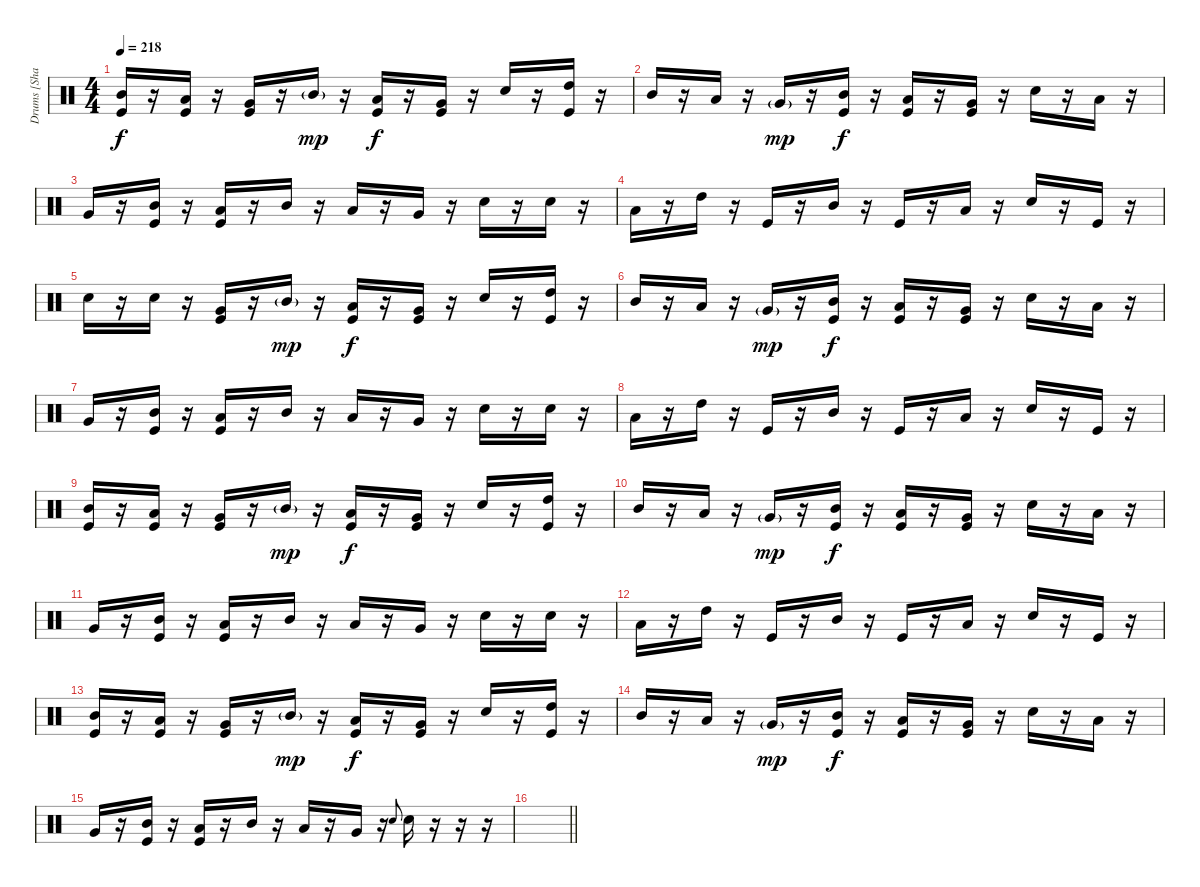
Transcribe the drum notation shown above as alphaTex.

\track ("Drums [Shannon Larkin]" "Drums [Sha") {instrument percussion}
\staff {score}
\articulation defaults
\ts (4 4)
\tempo 218
\clef neutral
\ks c
("Mid Tom (hit)" "Kick (hit)").16{dy f} r.16 ("Low Tom (hit)" "Kick (hit)").16 r.16 ("Very Low Tom (hit)" "Kick (hit)").16 r.16 "Mid Tom (hit)"{g}.16{dy mp} r.16 ("Low Tom (hit)" "Kick (hit)").16{dy f} r.16 ("Very Low Tom (hit)" "Kick (hit)").16 r.16 "Electric Snare (hit)".16 r.16 ("High Tom (hit)" "Kick (hit)").16 r.16 |
"Mid Tom (hit)".16 r.16 "Low Tom (hit)".16 r.16 "Very Low Tom (hit)"{g}.16{dy mp} r.16 ("Mid Tom (hit)" "Kick (hit)").16{dy f} r.16 ("Low Tom (hit)" "Kick (hit)").16 r.16 ("Very Low Tom (hit)" "Kick (hit)").16 r.16 "Electric Snare (hit)".16 r.16 "Low Tom (hit)".16 r.16 |
"Very Low Tom (hit)".16 r.16 ("Mid Tom (hit)" "Kick (hit)").16 r.16 ("Low Tom (hit)" "Kick (hit)").16 r.16 "Mid Tom (hit)".16 r.16 "Low Tom (hit)".16 r.16 "Very Low Tom (hit)".16 r.16 "Electric Snare (hit)".16 r.16 "Electric Snare (hit)".16 r.16 |
"Low Tom (hit)".16 r.16 "High Tom (hit)".16 r.16 "Kick (hit)".16 r.16 "Mid Tom (hit)".16 r.16 "Kick (hit)".16 r.16 "Low Tom (hit)".16 r.16 "Electric Snare (hit)".16 r.16 "Kick (hit)".16 r.16 |
"Electric Snare (hit)".16 r.16 "Electric Snare (hit)".16 r.16 ("Very Low Tom (hit)" "Kick (hit)").16 r.16 "Mid Tom (hit)"{g}.16{dy mp} r.16 ("Low Tom (hit)" "Kick (hit)").16{dy f} r.16 ("Very Low Tom (hit)" "Kick (hit)").16 r.16 "Electric Snare (hit)".16 r.16 ("High Tom (hit)" "Kick (hit)").16 r.16 |
"Mid Tom (hit)".16 r.16 "Low Tom (hit)".16 r.16 "Very Low Tom (hit)"{g}.16{dy mp} r.16 ("Mid Tom (hit)" "Kick (hit)").16{dy f} r.16 ("Low Tom (hit)" "Kick (hit)").16 r.16 ("Very Low Tom (hit)" "Kick (hit)").16 r.16 "Electric Snare (hit)".16 r.16 "Low Tom (hit)".16 r.16 |
"Very Low Tom (hit)".16 r.16 ("Mid Tom (hit)" "Kick (hit)").16 r.16 ("Low Tom (hit)" "Kick (hit)").16 r.16 "Mid Tom (hit)".16 r.16 "Low Tom (hit)".16 r.16 "Very Low Tom (hit)".16 r.16 "Electric Snare (hit)".16 r.16 "Electric Snare (hit)".16 r.16 |
"Low Tom (hit)".16 r.16 "High Tom (hit)".16 r.16 "Kick (hit)".16 r.16 "Mid Tom (hit)".16 r.16 "Kick (hit)".16 r.16 "Low Tom (hit)".16 r.16 "Electric Snare (hit)".16 r.16 "Kick (hit)".16 r.16 |
("Mid Tom (hit)" "Kick (hit)").16 r.16 ("Low Tom (hit)" "Kick (hit)").16 r.16 ("Very Low Tom (hit)" "Kick (hit)").16 r.16 "Mid Tom (hit)"{g}.16{dy mp} r.16 ("Low Tom (hit)" "Kick (hit)").16{dy f} r.16 ("Very Low Tom (hit)" "Kick (hit)").16 r.16 "Electric Snare (hit)".16 r.16 ("High Tom (hit)" "Kick (hit)").16 r.16 |
"Mid Tom (hit)".16 r.16 "Low Tom (hit)".16 r.16 "Very Low Tom (hit)"{g}.16{dy mp} r.16 ("Mid Tom (hit)" "Kick (hit)").16{dy f} r.16 ("Low Tom (hit)" "Kick (hit)").16 r.16 ("Very Low Tom (hit)" "Kick (hit)").16 r.16 "Electric Snare (hit)".16 r.16 "Low Tom (hit)".16 r.16 |
"Very Low Tom (hit)".16 r.16 ("Mid Tom (hit)" "Kick (hit)").16 r.16 ("Low Tom (hit)" "Kick (hit)").16 r.16 "Mid Tom (hit)".16 r.16 "Low Tom (hit)".16 r.16 "Very Low Tom (hit)".16 r.16 "Electric Snare (hit)".16 r.16 "Electric Snare (hit)".16 r.16 |
"Low Tom (hit)".16 r.16 "High Tom (hit)".16 r.16 "Kick (hit)".16 r.16 "Mid Tom (hit)".16 r.16 "Kick (hit)".16 r.16 "Low Tom (hit)".16 r.16 "Electric Snare (hit)".16 r.16 "Kick (hit)".16 r.16 |
("Mid Tom (hit)" "Kick (hit)").16 r.16 ("Low Tom (hit)" "Kick (hit)").16 r.16 ("Very Low Tom (hit)" "Kick (hit)").16 r.16 "Mid Tom (hit)"{g}.16{dy mp} r.16 ("Low Tom (hit)" "Kick (hit)").16{dy f} r.16 ("Very Low Tom (hit)" "Kick (hit)").16 r.16 "Electric Snare (hit)".16 r.16 ("High Tom (hit)" "Kick (hit)").16 r.16 |
"Mid Tom (hit)".16 r.16 "Low Tom (hit)".16 r.16 "Very Low Tom (hit)"{g}.16{dy mp} r.16 ("Mid Tom (hit)" "Kick (hit)").16{dy f} r.16 ("Low Tom (hit)" "Kick (hit)").16 r.16 ("Very Low Tom (hit)" "Kick (hit)").16 r.16 "Electric Snare (hit)".16 r.16 "Low Tom (hit)".16 r.16 |
"Very Low Tom (hit)".16 r.16 ("Mid Tom (hit)" "Kick (hit)").16 r.16 ("Low Tom (hit)" "Kick (hit)").16 r.16 "Mid Tom (hit)".16 r.16 "Low Tom (hit)".16 r.16 "Very Low Tom (hit)".16 r.16 "Electric Snare (hit)".8{gr onbeat} "Electric Snare (hit)".16 r.16 r.16 r.16 |
\barLineRight lightlight
